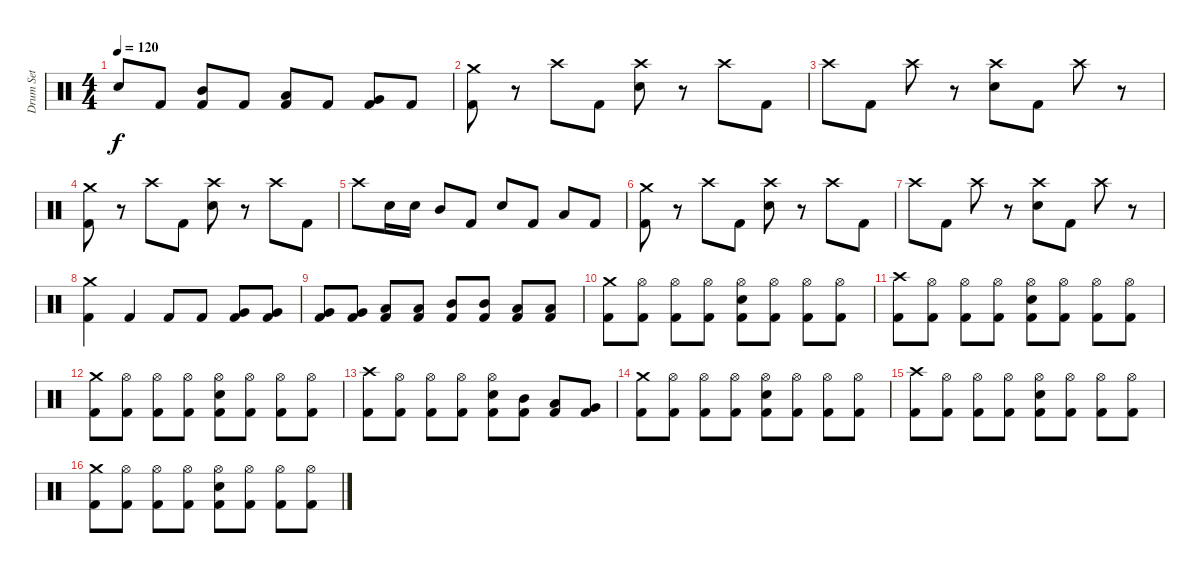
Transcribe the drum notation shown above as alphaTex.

\track ("Drum Set" "Drum Set") {instrument percussion}
\staff {score}
\articulation defaults
\ts (4 4)
\tempo 120
\clef neutral
\ks c "Snare (hit) 2".8{dy f} "Kick (hit) 2".8
("Mid Tom (hit)" "Kick (hit) 2").8 "Kick (hit) 2".8 ("Low Tom (hit)" "Kick (hit) 2").8 "Kick (hit) 2".8 ("Very Low Tom (hit)" "Kick (hit) 2").8 "Kick (hit) 2".8 |
("Kick (hit) 2" "Crash medium (hit)").8 r.8 "Crash high (hit)".8 "Kick (hit) 2".8 ("Snare (hit) 2" "Crash high (hit)").8 r.8 "Crash high (hit)".8 "Kick (hit) 2".8 |
"Crash high (hit)".8 "Kick (hit) 2".8 "Crash high (hit)".8 r.8 ("Snare (hit) 2" "Crash high (hit)").8 "Kick (hit) 2".8 "Crash high (hit)".8 r.8 |
("Kick (hit) 2" "Crash medium (hit)").8 r.8 "Crash high (hit)".8 "Kick (hit) 2".8 ("Snare (hit) 2" "Crash high (hit)").8 r.8 "Crash high (hit)".8 "Kick (hit) 2".8 |
"Crash high (hit)".8 "Snare (hit) 2".16 "Snare (hit) 2".16 "Mid Tom (hit)".8 "Kick (hit) 2".8 "Snare (hit) 2".8 "Kick (hit) 2".8 "Low Tom (hit)".8 "Kick (hit) 2".8 |
("Kick (hit) 2" "Crash medium (hit)").8 r.8 "Crash high (hit)".8 "Kick (hit) 2".8 ("Snare (hit) 2" "Crash high (hit)").8 r.8 "Crash high (hit)".8 "Kick (hit) 2".8 |
"Crash high (hit)".8 "Kick (hit) 2".8 "Crash high (hit)".8 r.8 ("Snare (hit) 2" "Crash high (hit)").8 "Kick (hit) 2".8 "Crash high (hit)".8 r.8 |
("Crash medium (hit)" "Kick (hit) 2").4 "Kick (hit) 2".4 "Kick (hit) 2".8 "Kick (hit) 2".8 ("Very Low Tom (hit)" "Kick (hit) 2").8 ("Very Low Tom (hit)" "Kick (hit) 2").8 |
("Kick (hit) 2" "Very Low Tom (hit)").8 ("Kick (hit) 2" "Very Low Tom (hit)").8 ("Kick (hit) 2" "Low Tom (hit)").8 ("Kick (hit) 2" "Low Tom (hit)").8 ("Kick (hit) 2" "Mid Tom (hit)").8 ("Kick (hit) 2" "Mid Tom (hit)").8 ("Kick (hit) 2" "Low Tom (hit)").8 ("Kick (hit) 2" "Low Tom (hit)").8 |
("Kick (hit) 2" "Crash medium (hit)").8 ("Kick (hit) 2" "Hi-Hat (open)").8 ("Kick (hit) 2" "Hi-Hat (open)").8 ("Kick (hit) 2" "Hi-Hat (open)").8 ("Kick (hit) 2" "Hi-Hat (open)" "Snare (hit) 2").8 ("Kick (hit) 2" "Hi-Hat (open)").8 ("Kick (hit) 2" "Hi-Hat (open)").8 ("Kick (hit) 2" "Hi-Hat (open)").8 |
("Kick (hit) 2" "Crash high (hit)").8 ("Kick (hit) 2" "Hi-Hat (open)").8 ("Kick (hit) 2" "Hi-Hat (open)").8 ("Kick (hit) 2" "Hi-Hat (open)").8 ("Kick (hit) 2" "Hi-Hat (open)" "Snare (hit) 2").8 ("Kick (hit) 2" "Hi-Hat (open)").8 ("Kick (hit) 2" "Hi-Hat (open)").8 ("Kick (hit) 2" "Hi-Hat (open)").8 |
("Kick (hit) 2" "Crash medium (hit)").8 ("Kick (hit) 2" "Hi-Hat (open)").8 ("Kick (hit) 2" "Hi-Hat (open)").8 ("Kick (hit) 2" "Hi-Hat (open)").8 ("Kick (hit) 2" "Hi-Hat (open)" "Snare (hit) 2").8 ("Kick (hit) 2" "Hi-Hat (open)").8 ("Kick (hit) 2" "Hi-Hat (open)").8 ("Kick (hit) 2" "Hi-Hat (open)").8 |
("Kick (hit) 2" "Crash high (hit)").8 ("Kick (hit) 2" "Hi-Hat (open)").8 ("Kick (hit) 2" "Hi-Hat (open)").8 ("Kick (hit) 2" "Hi-Hat (open)").8 ("Kick (hit) 2" "Hi-Hat (open)" "Snare (hit) 2").8 ("Kick (hit) 2" "Mid Tom (hit)").8 ("Kick (hit) 2" "Low Tom (hit)").8 ("Kick (hit) 2" "Very Low Tom (hit)").8 |
("Kick (hit) 2" "Crash medium (hit)").8 ("Kick (hit) 2" "Hi-Hat (open)").8 ("Kick (hit) 2" "Hi-Hat (open)").8 ("Kick (hit) 2" "Hi-Hat (open)").8 ("Kick (hit) 2" "Hi-Hat (open)" "Snare (hit) 2").8 ("Kick (hit) 2" "Hi-Hat (open)").8 ("Kick (hit) 2" "Hi-Hat (open)").8 ("Kick (hit) 2" "Hi-Hat (open)").8 |
("Kick (hit) 2" "Crash high (hit)").8 ("Kick (hit) 2" "Hi-Hat (open)").8 ("Kick (hit) 2" "Hi-Hat (open)").8 ("Kick (hit) 2" "Hi-Hat (open)").8 ("Kick (hit) 2" "Hi-Hat (open)" "Snare (hit) 2").8 ("Kick (hit) 2" "Hi-Hat (open)").8 ("Kick (hit) 2" "Hi-Hat (open)").8 ("Kick (hit) 2" "Hi-Hat (open)").8 |
("Kick (hit) 2" "Crash medium (hit)").8 ("Kick (hit) 2" "Hi-Hat (open)").8 ("Kick (hit) 2" "Hi-Hat (open)").8 ("Kick (hit) 2" "Hi-Hat (open)").8 ("Kick (hit) 2" "Hi-Hat (open)" "Snare (hit) 2").8 ("Kick (hit) 2" "Hi-Hat (open)").8 ("Kick (hit) 2" "Hi-Hat (open)").8 ("Kick (hit) 2" "Hi-Hat (open)").8
